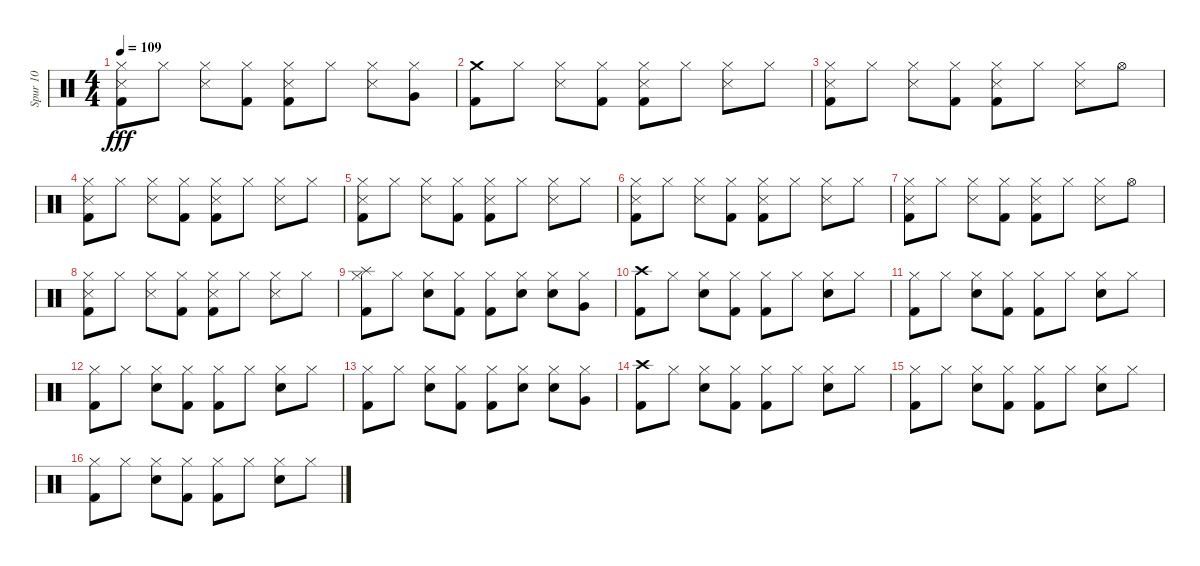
\track ("Spur 10" "Spur 10") {instrument percussion}
\staff {score}
\articulation defaults
\ts (4 4)
\tempo 109
\clef neutral
\ks c
("Kick (hit) 2" "Snare (side stick) 3" "Hi-Hat (closed)").8{dy fff} "Hi-Hat (closed)".8 ("Snare (side stick) 3" "Hi-Hat (closed)").8 ("Kick (hit) 2" "Hi-Hat (closed)").8 ("Snare (side stick) 3" "Kick (hit) 2" "Hi-Hat (closed)").8 "Hi-Hat (closed)".8 ("Snare (side stick) 3" "Hi-Hat (closed)").8 ("Very Low Tom (hit)" "Hi-Hat (closed)").8 |
("Kick (hit) 2" "Crash medium (hit)").8 "Hi-Hat (closed)".8 ("Snare (side stick) 3" "Hi-Hat (closed)").8 ("Kick (hit) 2" "Hi-Hat (closed)").8 ("Kick (hit) 2" "Snare (side stick) 3" "Hi-Hat (closed)").8 "Hi-Hat (closed)".8 ("Snare (side stick) 3" "Hi-Hat (closed)").8 "Hi-Hat (closed)".8 |
("Kick (hit) 2" "Snare (side stick) 3" "Hi-Hat (closed)").8 "Hi-Hat (closed)".8 ("Snare (side stick) 3" "Hi-Hat (closed)").8 ("Kick (hit) 2" "Hi-Hat (closed)").8 ("Snare (side stick) 3" "Kick (hit) 2" "Hi-Hat (closed)").8 "Hi-Hat (closed)".8 ("Snare (side stick) 3" "Hi-Hat (closed)").8 "Hi-Hat (open)".8 |
("Snare (side stick) 3" "Kick (hit) 2" "Hi-Hat (closed)").8 "Hi-Hat (closed)".8 ("Snare (side stick) 3" "Hi-Hat (closed)").8 ("Kick (hit) 2" "Hi-Hat (closed)").8 ("Snare (side stick) 3" "Kick (hit) 2" "Hi-Hat (closed)").8 "Hi-Hat (closed)".8 ("Snare (side stick) 3" "Hi-Hat (closed)").8 "Hi-Hat (closed)".8 |
("Snare (side stick) 3" "Kick (hit) 2" "Hi-Hat (closed)").8 "Hi-Hat (closed)".8 ("Snare (side stick) 3" "Hi-Hat (closed)").8 ("Kick (hit) 2" "Hi-Hat (closed)").8 ("Kick (hit) 2" "Snare (side stick) 3" "Hi-Hat (closed)").8 "Hi-Hat (closed)".8 ("Snare (side stick) 3" "Hi-Hat (closed)").8 "Hi-Hat (closed)".8 |
("Snare (side stick) 3" "Kick (hit) 2" "Hi-Hat (closed)").8 "Hi-Hat (closed)".8 ("Snare (side stick) 3" "Hi-Hat (closed)").8 ("Kick (hit) 2" "Hi-Hat (closed)").8 ("Kick (hit) 2" "Snare (side stick) 3" "Hi-Hat (closed)").8 "Hi-Hat (closed)".8 ("Snare (side stick) 3" "Hi-Hat (closed)").8 "Hi-Hat (closed)".8 |
("Snare (side stick) 3" "Kick (hit) 2" "Hi-Hat (closed)").8 "Hi-Hat (closed)".8 ("Snare (side stick) 3" "Hi-Hat (closed)").8 ("Kick (hit) 2" "Hi-Hat (closed)").8 ("Snare (side stick) 3" "Kick (hit) 2" "Hi-Hat (closed)").8 "Hi-Hat (closed)".8 ("Snare (side stick) 3" "Hi-Hat (closed)").8 "Hi-Hat (open)".8 |
("Snare (side stick) 3" "Kick (hit) 2" "Hi-Hat (closed)").8 "Hi-Hat (closed)".8 ("Snare (side stick) 3" "Hi-Hat (closed)").8 ("Kick (hit) 2" "Hi-Hat (closed)").8 ("Snare (side stick) 3" "Kick (hit) 2" "Hi-Hat (closed)").8 "Hi-Hat (closed)".8 ("Snare (side stick) 3" "Hi-Hat (closed)").8 "Hi-Hat (closed)".8 |
("Kick (hit) 2" "Hi-Hat (closed)" "Splash (hit)").8 "Hi-Hat (closed)".8 ("Snare (hit) 2" "Hi-Hat (closed)").8 ("Kick (hit) 2" "Hi-Hat (closed)").8 ("Kick (hit) 2" "Hi-Hat (closed)").8 ("Snare (hit) 2" "Hi-Hat (closed)").8 ("Snare (hit) 2" "Hi-Hat (closed)").8 ("Very Low Tom (hit)" "Hi-Hat (closed)").8 |
("Kick (hit) 2" "Crash high (hit)").8 "Hi-Hat (closed)".8 ("Snare (hit) 2" "Hi-Hat (closed)").8 ("Kick (hit) 2" "Hi-Hat (closed)").8 ("Kick (hit) 2" "Hi-Hat (closed)").8 "Hi-Hat (closed)".8 ("Snare (hit) 2" "Hi-Hat (closed)").8 "Hi-Hat (closed)".8 |
("Kick (hit) 2" "Hi-Hat (closed)").8 "Hi-Hat (closed)".8 ("Snare (hit) 2" "Hi-Hat (closed)").8 ("Kick (hit) 2" "Hi-Hat (closed)").8 ("Kick (hit) 2" "Hi-Hat (closed)").8 "Hi-Hat (closed)".8 ("Snare (hit) 2" "Hi-Hat (closed)").8 "Hi-Hat (closed)".8 |
("Kick (hit) 2" "Hi-Hat (closed)").8 "Hi-Hat (closed)".8 ("Snare (hit) 2" "Hi-Hat (closed)").8 ("Kick (hit) 2" "Hi-Hat (closed)").8 ("Kick (hit) 2" "Hi-Hat (closed)").8 "Hi-Hat (closed)".8 ("Snare (hit) 2" "Hi-Hat (closed)").8 "Hi-Hat (closed)".8 |
("Kick (hit) 2" "Hi-Hat (closed)").8 "Hi-Hat (closed)".8 ("Snare (hit) 2" "Hi-Hat (closed)").8 ("Kick (hit) 2" "Hi-Hat (closed)").8 ("Kick (hit) 2" "Hi-Hat (closed)").8 ("Snare (hit) 2" "Hi-Hat (closed)").8 ("Snare (hit) 2" "Hi-Hat (closed)").8 ("Very Low Tom (hit)" "Hi-Hat (closed)").8 |
("Kick (hit) 2" "Crash high (hit)").8 "Hi-Hat (closed)".8 ("Snare (hit) 2" "Hi-Hat (closed)").8 ("Kick (hit) 2" "Hi-Hat (closed)").8 ("Kick (hit) 2" "Hi-Hat (closed)").8 "Hi-Hat (closed)".8 ("Snare (hit) 2" "Hi-Hat (closed)").8 "Hi-Hat (closed)".8 |
("Kick (hit) 2" "Hi-Hat (closed)").8 "Hi-Hat (closed)".8 ("Snare (hit) 2" "Hi-Hat (closed)").8 ("Kick (hit) 2" "Hi-Hat (closed)").8 ("Kick (hit) 2" "Hi-Hat (closed)").8 "Hi-Hat (closed)".8 ("Snare (hit) 2" "Hi-Hat (closed)").8 "Hi-Hat (closed)".8 |
("Kick (hit) 2" "Hi-Hat (closed)").8 "Hi-Hat (closed)".8 ("Snare (hit) 2" "Hi-Hat (closed)").8 ("Kick (hit) 2" "Hi-Hat (closed)").8 ("Kick (hit) 2" "Hi-Hat (closed)").8 "Hi-Hat (closed)".8 ("Snare (hit) 2" "Hi-Hat (closed)").8 "Hi-Hat (closed)".8
